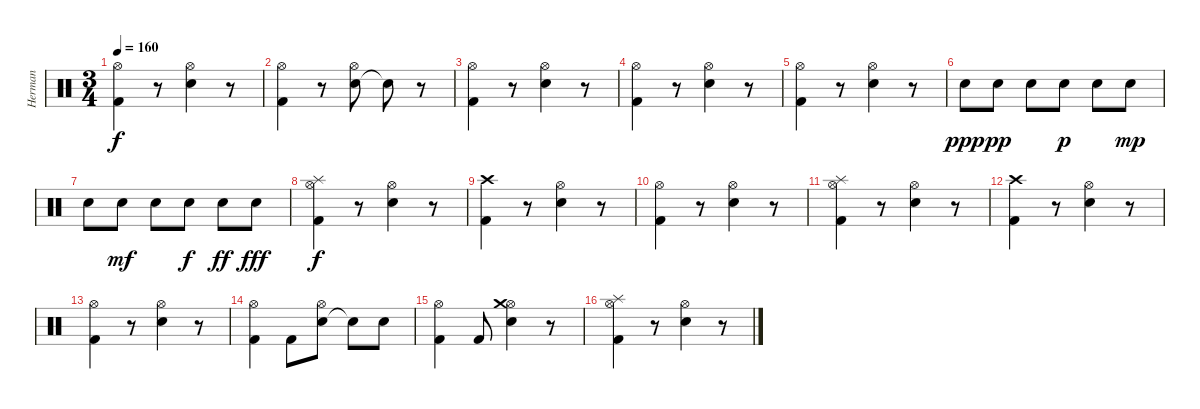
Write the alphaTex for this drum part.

\track ("Herman" "Herman") {instrument percussion}
\staff {score}
\articulation defaults
\ts (3 4)
\tempo 160
\clef neutral
\ks c
("Kick (hit) 2" "Hi-Hat (open)").4{dy f} r.8 ("Electric Snare (hit)" "Hi-Hat (open)").4 r.8 |
("Kick (hit) 2" "Hi-Hat (open)").4 r.8 ("Electric Snare (hit)" "Hi-Hat (open)").8 "Snare (hit)"{t}.8 r.8 |
("Kick (hit) 2" "Hi-Hat (open)").4 r.8 ("Electric Snare (hit)" "Hi-Hat (open)").4 r.8 |
("Kick (hit) 2" "Hi-Hat (open)").4 r.8 ("Electric Snare (hit)" "Hi-Hat (open)").4 r.8 |
("Kick (hit) 2" "Hi-Hat (open)").4 r.8 ("Electric Snare (hit)" "Hi-Hat (open)").4 r.8 |
"Electric Snare (hit)".8{dy ppp} "Electric Snare (hit)".8{dy pp} "Electric Snare (hit)".8 "Electric Snare (hit)".8{dy p} "Electric Snare (hit)".8 "Electric Snare (hit)".8{dy mp} |
"Electric Snare (hit)".8 "Electric Snare (hit)".8{dy mf} "Electric Snare (hit)".8 "Electric Snare (hit)".8{dy f} "Electric Snare (hit)".8{dy ff} "Electric Snare (hit)".8{dy fff} |
("Kick (hit) 2" "Hi-Hat (open)" "Splash (hit)").4{dy f} r.8 ("Electric Snare (hit)" "Hi-Hat (open)").4 r.8 |
("Kick (hit) 2" "Crash high (hit)").4 r.8 ("Electric Snare (hit)" "Hi-Hat (open)").4 r.8 |
("Kick (hit) 2" "Hi-Hat (open)").4 r.8 ("Electric Snare (hit)" "Hi-Hat (open)").4 r.8 |
("Kick (hit) 2" "Hi-Hat (open)" "Splash (hit)").4 r.8 ("Electric Snare (hit)" "Hi-Hat (open)").4 r.8 |
("Kick (hit) 2" "Crash high (hit)").4 r.8 ("Electric Snare (hit)" "Hi-Hat (open)").4 r.8 |
("Kick (hit) 2" "Hi-Hat (open)").4 r.8 ("Electric Snare (hit)" "Hi-Hat (open)").4 r.8 |
("Kick (hit) 2" "Hi-Hat (open)").4 "Kick (hit) 2".8 ("Electric Snare (hit)" "Hi-Hat (open)").8 "Snare (hit)"{t}.8 "Electric Snare (hit)".8 |
("Kick (hit) 2" "Hi-Hat (open)").4 "Kick (hit) 2".8 ("Electric Snare (hit)" "Hi-Hat (open)" "Crash medium (hit)").4 r.8 |
("Kick (hit) 2" "Hi-Hat (open)" "Splash (hit)").4 r.8 ("Electric Snare (hit)" "Hi-Hat (open)").4 r.8
